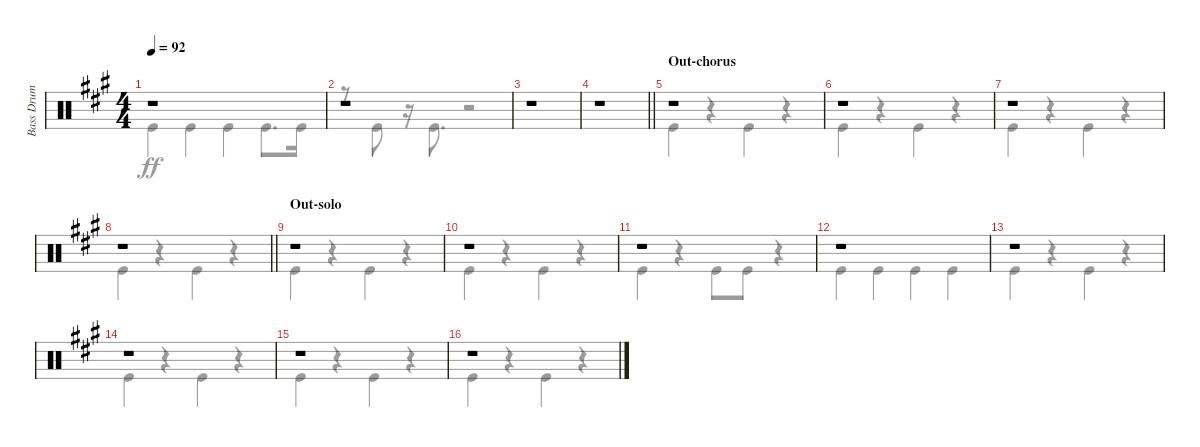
\track ("Bass Drum" "Bass Drum") {instrument percussion}
\staff {score}
\articulation defaults
\voice
\ts (4 4)
\tempo 92
\clef neutral
\ks f#minor
r.1{dy f} |
r.1 |
r.1 |
\barLineRight lightlight
r.1 |
\section ("" "Out-chorus")
r.1 |
r.1 |
r.1 |
\barLineRight lightlight
r.1 |
\section ("" "Out-solo")
r.1 |
r.1 |
r.1 |
r.1 |
r.1 |
r.1 |
r.1 |
r.1
\voice
\clef neutral
\ottava regular
\simile none
\ks f#minor "Kick (hit)".4{dy ff} "Kick (hit)".4 "Kick (hit)".4 "Kick (hit)".8{d} "Kick (hit)".16
|
r.8 "Kick (hit)".8 r.16 "Kick (hit)".8{d} r.2 |
|
\barLineRight lightlight
|
"Kick (hit)".4 r.4 "Kick (hit)".4 r.4 |
"Kick (hit)".4 r.4 "Kick (hit)".4 r.4 |
"Kick (hit)".4 r.4 "Kick (hit)".4 r.4 |
\barLineRight lightlight "Kick (hit)".4
r.4 "Kick (hit)".4 r.4 |
"Kick (hit)".4 r.4 "Kick (hit)".4 r.4 |
"Kick (hit)".4 r.4 "Kick (hit)".4 r.4 |
"Kick (hit)".4 r.4 "Kick (hit)".8 "Kick (hit)".8 r.4 |
"Kick (hit)".4 "Kick (hit)".4 "Kick (hit)".4 "Kick (hit)".4 |
"Kick (hit)".4 r.4 "Kick (hit)".4 r.4 |
"Kick (hit)".4 r.4 "Kick (hit)".4 r.4 |
"Kick (hit)".4 r.4 "Kick (hit)".4 r.4 |
"Kick (hit)".4 r.4 "Kick (hit)".4 r.4
